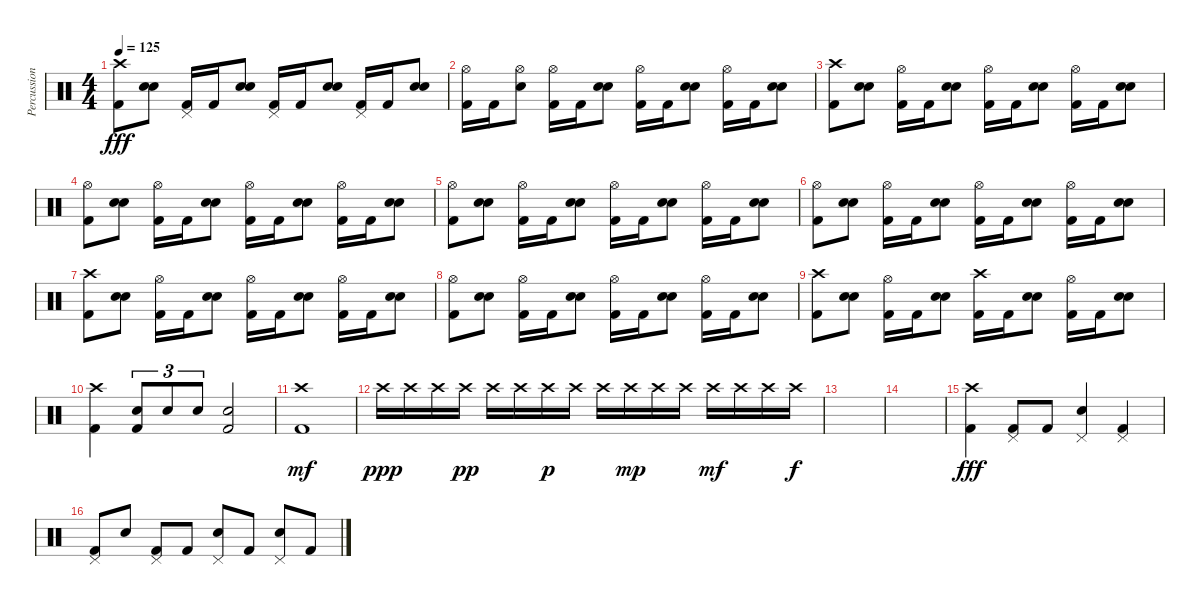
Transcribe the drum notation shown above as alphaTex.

\track ("Percussion" "Percussion") {instrument percussion}
\staff {score}
\articulation defaults
\ts (4 4)
\tempo 125
\clef neutral
\ks c
("Crash high (hit)" "Kick (hit) 2").8{dy fff} ("Snare (hit) 2" "Snare (hit) 2").8 ("Pedal Hi-Hat (hit)" "Kick (hit) 2").16 "Kick (hit) 2".16 ("Snare (hit) 2" "Snare (hit) 2").8 ("Pedal Hi-Hat (hit)" "Kick (hit) 2").16 "Kick (hit) 2".16 ("Snare (hit) 2" "Snare (hit) 2").8 ("Pedal Hi-Hat (hit)" "Kick (hit) 2").16 "Kick (hit) 2".16 ("Snare (hit) 2" "Snare (hit) 2").8 |
("Hi-Hat (open)" "Kick (hit) 2").16 "Kick (hit) 2".16 ("Hi-Hat (open)" "Snare (hit) 2").8 ("Hi-Hat (open)" "Kick (hit) 2").16 "Kick (hit) 2".16 ("Snare (hit) 2" "Snare (hit) 2").8 ("Hi-Hat (open)" "Kick (hit) 2").16 "Kick (hit) 2".16 ("Snare (hit) 2" "Snare (hit) 2").8 ("Hi-Hat (open)" "Kick (hit) 2").16 "Kick (hit) 2".16 ("Snare (hit) 2" "Snare (hit) 2").8 |
("Crash high (hit)" "Kick (hit) 2").8 ("Snare (hit) 2" "Snare (hit) 2").8 ("Hi-Hat (open)" "Kick (hit) 2").16 "Kick (hit) 2".16 ("Snare (hit) 2" "Snare (hit) 2").8 ("Hi-Hat (open)" "Kick (hit) 2").16 "Kick (hit) 2".16 ("Snare (hit) 2" "Snare (hit) 2").8 ("Hi-Hat (open)" "Kick (hit) 2").16 "Kick (hit) 2".16 ("Snare (hit) 2" "Snare (hit) 2").8 |
("Hi-Hat (open)" "Kick (hit) 2").8 ("Snare (hit) 2" "Snare (hit) 2").8 ("Hi-Hat (open)" "Kick (hit) 2").16 "Kick (hit) 2".16 ("Snare (hit) 2" "Snare (hit) 2").8 ("Hi-Hat (open)" "Kick (hit) 2").16 "Kick (hit) 2".16 ("Snare (hit) 2" "Snare (hit) 2").8 ("Hi-Hat (open)" "Kick (hit) 2").16 "Kick (hit) 2".16 ("Snare (hit) 2" "Snare (hit) 2").8 |
("Hi-Hat (open)" "Kick (hit) 2").8 ("Snare (hit) 2" "Snare (hit) 2").8 ("Hi-Hat (open)" "Kick (hit) 2").16 "Kick (hit) 2".16 ("Snare (hit) 2" "Snare (hit) 2").8 ("Hi-Hat (open)" "Kick (hit) 2").16 "Kick (hit) 2".16 ("Snare (hit) 2" "Snare (hit) 2").8 ("Hi-Hat (open)" "Kick (hit) 2").16 "Kick (hit) 2".16 ("Snare (hit) 2" "Snare (hit) 2").8 |
("Hi-Hat (open)" "Kick (hit) 2").8 ("Snare (hit) 2" "Snare (hit) 2").8 ("Hi-Hat (open)" "Kick (hit) 2").16 "Kick (hit) 2".16 ("Snare (hit) 2" "Snare (hit) 2").8 ("Hi-Hat (open)" "Kick (hit) 2").16 "Kick (hit) 2".16 ("Snare (hit) 2" "Snare (hit) 2").8 ("Hi-Hat (open)" "Kick (hit) 2").16 "Kick (hit) 2".16 ("Snare (hit) 2" "Snare (hit) 2").8 |
("Crash high (hit)" "Kick (hit) 2").8 ("Snare (hit) 2" "Snare (hit) 2").8 ("Hi-Hat (open)" "Kick (hit) 2").16 "Kick (hit) 2".16 ("Snare (hit) 2" "Snare (hit) 2").8 ("Hi-Hat (open)" "Kick (hit) 2").16 "Kick (hit) 2".16 ("Snare (hit) 2" "Snare (hit) 2").8 ("Hi-Hat (open)" "Kick (hit) 2").16 "Kick (hit) 2".16 ("Snare (hit) 2" "Snare (hit) 2").8 |
("Hi-Hat (open)" "Kick (hit) 2").8 ("Snare (hit) 2" "Snare (hit) 2").8 ("Hi-Hat (open)" "Kick (hit) 2").16 "Kick (hit) 2".16 ("Snare (hit) 2" "Snare (hit) 2").8 ("Hi-Hat (open)" "Kick (hit) 2").16 "Kick (hit) 2".16 ("Snare (hit) 2" "Snare (hit) 2").8 ("Hi-Hat (open)" "Kick (hit) 2").16 "Kick (hit) 2".16 ("Snare (hit) 2" "Snare (hit) 2").8 |
("Crash high (hit)" "Kick (hit) 2").8 ("Snare (hit) 2" "Snare (hit) 2").8 ("Hi-Hat (open)" "Kick (hit) 2").16 "Kick (hit) 2".16 ("Snare (hit) 2" "Snare (hit) 2").8 ("Crash high (hit)" "Kick (hit) 2").16 "Kick (hit) 2".16 ("Snare (hit) 2" "Snare (hit) 2").8 ("Hi-Hat (open)" "Kick (hit) 2").16 "Kick (hit) 2".16 ("Snare (hit) 2" "Snare (hit) 2").8 |
("Crash high (hit)" "Kick (hit) 2").4 ("Snare (hit) 2" "Kick (hit) 2").8{tu (3 2)} "Snare (hit) 2".8{tu (3 2)} "Snare (hit) 2".8{tu (3 2)} ("Snare (hit) 2" "Kick (hit) 2").2 |
("Crash high (hit)" "Kick (hit) 2").1{dy mf} |
"Crash high (hit)".16{dy ppp} "Crash high (hit)".16 "Crash high (hit)".16 "Crash high (hit)".16{dy pp} "Crash high (hit)".16 "Crash high (hit)".16 "Crash high (hit)".16{dy p} "Crash high (hit)".16 "Crash high (hit)".16 "Crash high (hit)".16{dy mp} "Crash high (hit)".16 "Crash high (hit)".16 "Crash high (hit)".16{dy mf} "Crash high (hit)".16 "Crash high (hit)".16 "Crash high (hit)".16{dy f} |
|
|
("Crash high (hit)" "Kick (hit) 2").4{dy fff} ("Pedal Hi-Hat (hit)" "Kick (hit) 2").8 "Kick (hit) 2".8 ("Pedal Hi-Hat (hit)" "Snare (hit) 2").4 ("Pedal Hi-Hat (hit)" "Kick (hit) 2").4 |
("Pedal Hi-Hat (hit)" "Kick (hit) 2").8 "Snare (hit) 2".8 ("Pedal Hi-Hat (hit)" "Kick (hit) 2").8 "Kick (hit) 2".8 ("Pedal Hi-Hat (hit)" "Snare (hit) 2").8 "Kick (hit) 2".8 ("Pedal Hi-Hat (hit)" "Snare (hit) 2").8 "Kick (hit) 2".8
